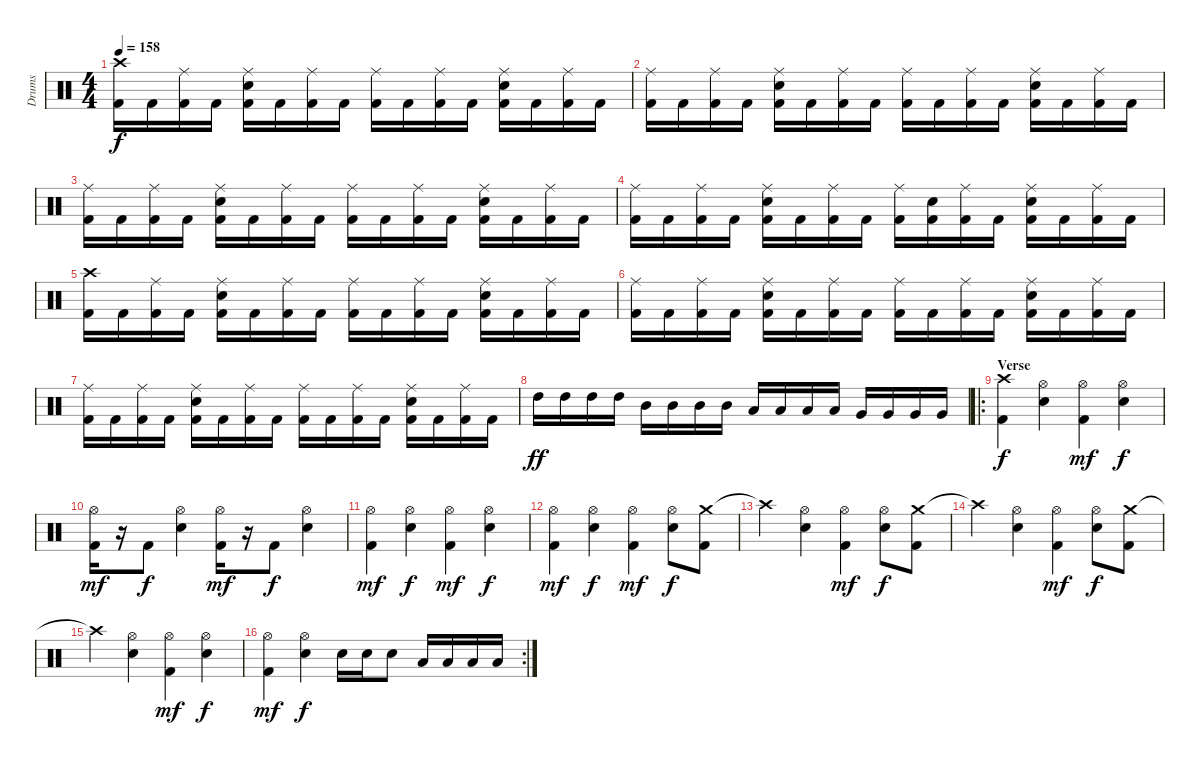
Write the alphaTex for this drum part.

\track ("Drums" "Drums") {instrument percussion}
\staff {score}
\articulation defaults
\ts (4 4)
\tempo 158
\clef neutral
\ks c
("Crash high (hit)" "Kick (hit) 2").16{dy f} "Kick (hit) 2".16 ("Ride (middle)" "Kick (hit) 2").16 "Kick (hit) 2".16 ("Ride (middle)" "Electric Snare (hit)" "Kick (hit) 2").16 "Kick (hit) 2".16 ("Ride (middle)" "Kick (hit) 2").16 "Kick (hit) 2".16 ("Ride (middle)" "Kick (hit) 2").16 "Kick (hit) 2".16 ("Ride (middle)" "Kick (hit) 2").16 "Kick (hit) 2".16 ("Ride (middle)" "Electric Snare (hit)" "Kick (hit) 2").16 "Kick (hit) 2".16 ("Ride (middle)" "Kick (hit) 2").16 "Kick (hit) 2".16 |
("Ride (middle)" "Kick (hit) 2").16 "Kick (hit) 2".16 ("Ride (middle)" "Kick (hit) 2").16 "Kick (hit) 2".16 ("Ride (middle)" "Electric Snare (hit)" "Kick (hit) 2").16 "Kick (hit) 2".16 ("Ride (middle)" "Kick (hit) 2").16 "Kick (hit) 2".16 ("Ride (middle)" "Kick (hit) 2").16 "Kick (hit) 2".16 ("Ride (middle)" "Kick (hit) 2").16 "Kick (hit) 2".16 ("Ride (middle)" "Electric Snare (hit)" "Kick (hit) 2").16 "Kick (hit) 2".16 ("Ride (middle)" "Kick (hit) 2").16 "Kick (hit) 2".16 |
("Ride (middle)" "Kick (hit) 2").16 "Kick (hit) 2".16 ("Ride (middle)" "Kick (hit) 2").16 "Kick (hit) 2".16 ("Ride (middle)" "Electric Snare (hit)" "Kick (hit) 2").16 "Kick (hit) 2".16 ("Ride (middle)" "Kick (hit) 2").16 "Kick (hit) 2".16 ("Ride (middle)" "Kick (hit) 2").16 "Kick (hit) 2".16 ("Ride (middle)" "Kick (hit) 2").16 "Kick (hit) 2".16 ("Ride (middle)" "Electric Snare (hit)" "Kick (hit) 2").16 "Kick (hit) 2".16 ("Ride (middle)" "Kick (hit) 2").16 "Kick (hit) 2".16 |
("Ride (middle)" "Kick (hit) 2").16 "Kick (hit) 2".16 ("Ride (middle)" "Kick (hit) 2").16 "Kick (hit) 2".16 ("Ride (middle)" "Electric Snare (hit)" "Kick (hit) 2").16 "Kick (hit) 2".16 ("Ride (middle)" "Kick (hit) 2").16 "Kick (hit) 2".16 ("Ride (middle)" "Kick (hit) 2").16 ("Electric Snare (hit)" "Kick (hit) 2").16 ("Ride (middle)" "Kick (hit) 2").16 "Kick (hit) 2".16 ("Ride (middle)" "Electric Snare (hit)" "Kick (hit) 2").16 "Kick (hit) 2".16 ("Ride (middle)" "Kick (hit) 2").16 "Kick (hit) 2".16 |
("Crash high (hit)" "Kick (hit) 2").16 "Kick (hit) 2".16 ("Ride (middle)" "Kick (hit) 2").16 "Kick (hit) 2".16 ("Ride (middle)" "Electric Snare (hit)" "Kick (hit) 2").16 "Kick (hit) 2".16 ("Ride (middle)" "Kick (hit) 2").16 "Kick (hit) 2".16 ("Ride (middle)" "Kick (hit) 2").16 "Kick (hit) 2".16 ("Ride (middle)" "Kick (hit) 2").16 "Kick (hit) 2".16 ("Ride (middle)" "Electric Snare (hit)" "Kick (hit) 2").16 "Kick (hit) 2".16 ("Ride (middle)" "Kick (hit) 2").16 "Kick (hit) 2".16 |
("Ride (middle)" "Kick (hit) 2").16 "Kick (hit) 2".16 ("Ride (middle)" "Kick (hit) 2").16 "Kick (hit) 2".16 ("Ride (middle)" "Electric Snare (hit)" "Kick (hit) 2").16 "Kick (hit) 2".16 ("Ride (middle)" "Kick (hit) 2").16 "Kick (hit) 2".16 ("Ride (middle)" "Kick (hit) 2").16 "Kick (hit) 2".16 ("Ride (middle)" "Kick (hit) 2").16 "Kick (hit) 2".16 ("Ride (middle)" "Electric Snare (hit)" "Kick (hit) 2").16 "Kick (hit) 2".16 ("Ride (middle)" "Kick (hit) 2").16 "Kick (hit) 2".16 |
("Ride (middle)" "Kick (hit) 2").16 "Kick (hit) 2".16 ("Ride (middle)" "Kick (hit) 2").16 "Kick (hit) 2".16 ("Ride (middle)" "Electric Snare (hit)" "Kick (hit) 2").16 "Kick (hit) 2".16 ("Ride (middle)" "Kick (hit) 2").16 "Kick (hit) 2".16 ("Ride (middle)" "Kick (hit) 2").16 "Kick (hit) 2".16 ("Ride (middle)" "Kick (hit) 2").16 "Kick (hit) 2".16 ("Ride (middle)" "Electric Snare (hit)" "Kick (hit) 2").16 "Kick (hit) 2".16 ("Ride (middle)" "Kick (hit) 2").16 "Kick (hit) 2".16 |
"High Tom (hit)".16{dy ff} "High Tom (hit)".16 "High Tom (hit)".16 "High Tom (hit)".16 "Mid Tom (hit)".16 "Mid Tom (hit)".16 "Mid Tom (hit)".16 "Mid Tom (hit)".16 "Low Tom (hit)".16 "Low Tom (hit)".16 "Low Tom (hit)".16 "Low Tom (hit)".16 "Very Low Tom (hit)".16 "Very Low Tom (hit)".16 "Very Low Tom (hit)".16 "Very Low Tom (hit)".16 |
\ro
\section ("" "Verse")
("Crash high (hit)" "Kick (hit) 2").4{dy f} ("Hi-Hat (open)" "Electric Snare (hit)").4 ("Hi-Hat (open)" "Kick (hit) 2").4{dy mf} ("Hi-Hat (open)" "Electric Snare (hit)").4{dy f} |
("Hi-Hat (open)" "Kick (hit) 2").16{dy mf} r.16 "Kick (hit) 2".8{dy f} ("Hi-Hat (open)" "Electric Snare (hit)").4 ("Hi-Hat (open)" "Kick (hit) 2").16{dy mf} r.16 "Kick (hit) 2".8{dy f} ("Hi-Hat (open)" "Electric Snare (hit)").4 |
("Hi-Hat (open)" "Kick (hit) 2").4{dy mf} ("Hi-Hat (open)" "Electric Snare (hit)").4{dy f} ("Hi-Hat (open)" "Kick (hit) 2").4{dy mf} ("Hi-Hat (open)" "Electric Snare (hit)").4{dy f} |
("Hi-Hat (open)" "Kick (hit) 2").4{dy mf} ("Hi-Hat (open)" "Electric Snare (hit)").4{dy f} ("Hi-Hat (open)" "Kick (hit) 2").4{dy mf} ("Hi-Hat (open)" "Electric Snare (hit)").8{dy f} ("Crash medium (hit)" "Kick (hit) 2").8 |
"Crash high (hit)"{t}.4 ("Hi-Hat (open)" "Electric Snare (hit)").4 ("Hi-Hat (open)" "Kick (hit) 2").4{dy mf} ("Hi-Hat (open)" "Electric Snare (hit)").8{dy f} ("Crash medium (hit)" "Kick (hit) 2").8 |
"Crash high (hit)"{t}.4 ("Hi-Hat (open)" "Electric Snare (hit)").4 ("Hi-Hat (open)" "Kick (hit) 2").4{dy mf} ("Hi-Hat (open)" "Electric Snare (hit)").8{dy f} ("Crash medium (hit)" "Kick (hit) 2").8 |
"Crash high (hit)"{t}.4 ("Hi-Hat (open)" "Electric Snare (hit)").4 ("Hi-Hat (open)" "Kick (hit) 2").4{dy mf} ("Hi-Hat (open)" "Electric Snare (hit)").4{dy f} |
\rc 2
("Hi-Hat (open)" "Kick (hit) 2").4{dy mf} ("Hi-Hat (open)" "Electric Snare (hit)").4{dy f} "Electric Snare (hit)".16 "Electric Snare (hit)".16 "Electric Snare (hit)".8 "Low Tom (hit)".16 "Low Tom (hit)".16 "Low Tom (hit)".16 "Low Tom (hit)".16
